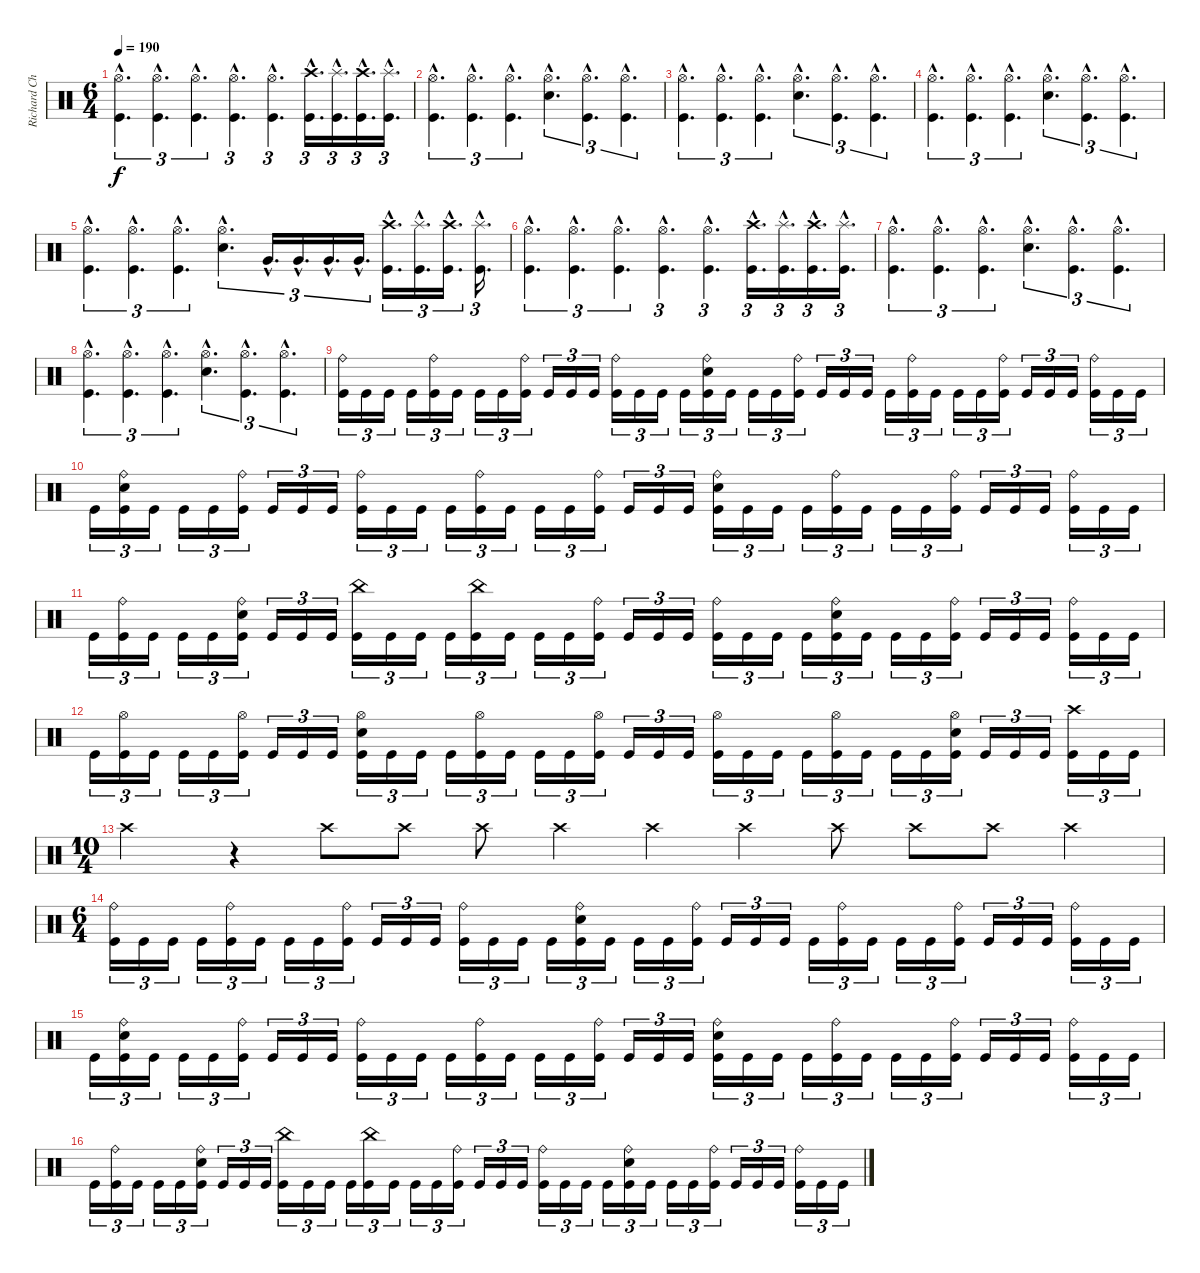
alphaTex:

\track ("Richard Christy" "Richard Ch") {instrument percussion}
\staff {score}
\articulation defaults
\ts (6 4)
\tempo 190
\clef neutral
\ks c
("Hi-Hat (open)"{hac} "Kick (hit)"{hac}).4{d tu (3 2) dy f} ("Hi-Hat (open)"{hac} "Kick (hit)"{hac}).4{d tu (3 2)} ("Hi-Hat (open)"{hac} "Kick (hit)"{hac}).4{d tu (3 2)} ("Hi-Hat (open)"{hac} "Kick (hit)"{hac}).4{d tu (3 2)} ("Hi-Hat (open)"{hac} "Kick (hit)"{hac}).4{d tu (3 2)} ("Crash high (hit)"{hac} "Kick (hit)"{hac}).16{d tu (3 2)} ("Splash (hit)"{hac} "Kick (hit)"{hac}).16{d tu (3 2)} ("Crash high (hit)"{hac} "Kick (hit)"{hac}).16{d tu (3 2)} ("Splash (hit)"{hac} "Kick (hit)"{hac}).16{d tu (3 2)} |
("Hi-Hat (open)"{hac} "Kick (hit)"{hac}).4{d tu (3 2)} ("Hi-Hat (open)"{hac} "Kick (hit)"{hac}).4{d tu (3 2)} ("Hi-Hat (open)"{hac} "Kick (hit)"{hac}).4{d tu (3 2)} ("Hi-Hat (open)"{hac} "Snare (hit) 2"{hac}).4{d tu (3 2)} ("Hi-Hat (open)"{hac} "Kick (hit)"{hac}).4{d tu (3 2)} ("Hi-Hat (open)"{hac} "Kick (hit)"{hac}).4{d tu (3 2)} |
("Hi-Hat (open)"{hac} "Kick (hit)"{hac}).4{d tu (3 2)} ("Hi-Hat (open)"{hac} "Kick (hit)"{hac}).4{d tu (3 2)} ("Hi-Hat (open)"{hac} "Kick (hit)"{hac}).4{d tu (3 2)} ("Hi-Hat (open)"{hac} "Snare (hit) 2"{hac}).4{d tu (3 2)} ("Hi-Hat (open)"{hac} "Kick (hit)"{hac}).4{d tu (3 2)} ("Hi-Hat (open)"{hac} "Kick (hit)"{hac}).4{d tu (3 2)} |
("Hi-Hat (open)"{hac} "Kick (hit)"{hac}).4{d tu (3 2)} ("Hi-Hat (open)"{hac} "Kick (hit)"{hac}).4{d tu (3 2)} ("Hi-Hat (open)"{hac} "Kick (hit)"{hac}).4{d tu (3 2)} ("Hi-Hat (open)"{hac} "Snare (hit) 2"{hac}).4{d tu (3 2)} ("Hi-Hat (open)"{hac} "Kick (hit)"{hac}).4{d tu (3 2)} ("Hi-Hat (open)"{hac} "Kick (hit)"{hac}).4{d tu (3 2)} |
("Hi-Hat (open)"{hac} "Kick (hit)"{hac}).4{d tu (3 2)} ("Hi-Hat (open)"{hac} "Kick (hit)"{hac}).4{d tu (3 2)} ("Hi-Hat (open)"{hac} "Kick (hit)"{hac}).4{d tu (3 2)} ("Hi-Hat (open)"{hac} "Snare (hit) 2"{hac}).4{d tu (3 2)} "Very Low Tom (hit)"{hac}.16{d tu (3 2)} "Very Low Tom (hit)"{hac}.16{d tu (3 2)} "Very Low Tom (hit)"{hac}.16{d tu (3 2)} "Very Low Tom (hit)"{hac}.16{d tu (3 2)} ("Crash high (hit)"{hac} "Kick (hit)"{hac}).16{d tu (3 2)} ("Splash (hit)"{hac} "Kick (hit)"{hac}).16{d tu (3 2)} ("Crash high (hit)"{hac} "Kick (hit)"{hac}).16{d tu (3 2)} ("Splash (hit)"{hac} "Kick (hit)"{hac}).16{d tu (3 2)} |
("Hi-Hat (open)"{hac} "Kick (hit)"{hac}).4{d tu (3 2)} ("Hi-Hat (open)"{hac} "Kick (hit)"{hac}).4{d tu (3 2)} ("Hi-Hat (open)"{hac} "Kick (hit)"{hac}).4{d tu (3 2)} ("Hi-Hat (open)"{hac} "Kick (hit)"{hac}).4{d tu (3 2)} ("Hi-Hat (open)"{hac} "Kick (hit)"{hac}).4{d tu (3 2)} ("Crash high (hit)"{hac} "Kick (hit)"{hac}).16{d tu (3 2)} ("Splash (hit)"{hac} "Kick (hit)"{hac}).16{d tu (3 2)} ("Crash high (hit)"{hac} "Kick (hit)"{hac}).16{d tu (3 2)} ("Splash (hit)"{hac} "Kick (hit)"{hac}).16{d tu (3 2)} |
("Hi-Hat (open)"{hac} "Kick (hit)"{hac}).4{d tu (3 2)} ("Hi-Hat (open)"{hac} "Kick (hit)"{hac}).4{d tu (3 2)} ("Hi-Hat (open)"{hac} "Kick (hit)"{hac}).4{d tu (3 2)} ("Hi-Hat (open)"{hac} "Snare (hit) 2"{hac}).4{d tu (3 2)} ("Hi-Hat (open)"{hac} "Kick (hit)"{hac}).4{d tu (3 2)} ("Hi-Hat (open)"{hac} "Kick (hit)"{hac}).4{d tu (3 2)} |
("Hi-Hat (open)"{hac} "Kick (hit)"{hac}).4{d tu (3 2)} ("Hi-Hat (open)"{hac} "Kick (hit)"{hac}).4{d tu (3 2)} ("Hi-Hat (open)"{hac} "Kick (hit)"{hac}).4{d tu (3 2)} ("Hi-Hat (open)"{hac} "Snare (hit) 2"{hac}).4{d tu (3 2)} ("Hi-Hat (open)"{hac} "Kick (hit)"{hac}).4{d tu (3 2)} ("Hi-Hat (open)"{hac} "Kick (hit)"{hac}).4{d tu (3 2)} |
("Ride (bell)" "Kick (hit)").16{tu (3 2)} "Kick (hit)".16{tu (3 2)} "Kick (hit)".16{tu (3 2)} "Kick (hit)".16{tu (3 2)} ("Ride (bell)" "Kick (hit)").16{tu (3 2)} "Kick (hit)".16{tu (3 2)} "Kick (hit)".16{tu (3 2)} "Kick (hit)".16{tu (3 2)} ("Ride (bell)" "Kick (hit)").16{tu (3 2)} "Kick (hit)".16{tu (3 2)} "Kick (hit)".16{tu (3 2)} "Kick (hit)".16{tu (3 2)} ("Ride (bell)" "Kick (hit)").16{tu (3 2)} "Kick (hit)".16{tu (3 2)} "Kick (hit)".16{tu (3 2)} "Kick (hit)".16{tu (3 2)} ("Ride (bell)" "Snare (hit) 2" "Kick (hit)").16{tu (3 2)} "Kick (hit)".16{tu (3 2)} "Kick (hit)".16{tu (3 2)} "Kick (hit)".16{tu (3 2)} ("Ride (bell)" "Kick (hit)").16{tu (3 2)} "Kick (hit)".16{tu (3 2)} "Kick (hit)".16{tu (3 2)} "Kick (hit)".16{tu (3 2)} "Kick (hit)".16{tu (3 2)} ("Ride (bell)" "Kick (hit)").16{tu (3 2)} "Kick (hit)".16{tu (3 2)} "Kick (hit)".16{tu (3 2)} "Kick (hit)".16{tu (3 2)} ("Ride (bell)" "Kick (hit)").16{tu (3 2)} "Kick (hit)".16{tu (3 2)} "Kick (hit)".16{tu (3 2)} "Kick (hit)".16{tu (3 2)} ("Ride (bell)" "Kick (hit)").16{tu (3 2)} "Kick (hit)".16{tu (3 2)} "Kick (hit)".16{tu (3 2)} |
"Kick (hit)".16{tu (3 2)} ("Ride (bell)" "Snare (hit) 2" "Kick (hit)").16{tu (3 2)} "Kick (hit)".16{tu (3 2)} "Kick (hit)".16{tu (3 2)} "Kick (hit)".16{tu (3 2)} ("Ride (bell)" "Kick (hit)").16{tu (3 2)} "Kick (hit)".16{tu (3 2)} "Kick (hit)".16{tu (3 2)} "Kick (hit)".16{tu (3 2)} ("Ride (bell)" "Kick (hit)").16{tu (3 2)} "Kick (hit)".16{tu (3 2)} "Kick (hit)".16{tu (3 2)} "Kick (hit)".16{tu (3 2)} ("Ride (bell)" "Kick (hit)").16{tu (3 2)} "Kick (hit)".16{tu (3 2)} "Kick (hit)".16{tu (3 2)} "Kick (hit)".16{tu (3 2)} ("Ride (bell)" "Kick (hit)").16{tu (3 2)} "Kick (hit)".16{tu (3 2)} "Kick (hit)".16{tu (3 2)} "Kick (hit)".16{tu (3 2)} ("Ride (bell)" "Snare (hit) 2" "Kick (hit)").16{tu (3 2)} "Kick (hit)".16{tu (3 2)} "Kick (hit)".16{tu (3 2)} "Kick (hit)".16{tu (3 2)} ("Ride (bell)" "Kick (hit)").16{tu (3 2)} "Kick (hit)".16{tu (3 2)} "Kick (hit)".16{tu (3 2)} "Kick (hit)".16{tu (3 2)} ("Ride (bell)" "Kick (hit)").16{tu (3 2)} "Kick (hit)".16{tu (3 2)} "Kick (hit)".16{tu (3 2)} "Kick (hit)".16{tu (3 2)} ("Ride (bell)" "Kick (hit)").16{tu (3 2)} "Kick (hit)".16{tu (3 2)} "Kick (hit)".16{tu (3 2)} |
"Kick (hit)".16{tu (3 2)} ("Ride (bell)" "Kick (hit)").16{tu (3 2)} "Kick (hit)".16{tu (3 2)} "Kick (hit)".16{tu (3 2)} "Kick (hit)".16{tu (3 2)} ("Ride (bell)" "Snare (hit) 2" "Kick (hit)").16{tu (3 2)} "Kick (hit)".16{tu (3 2)} "Kick (hit)".16{tu (3 2)} "Kick (hit)".16{tu (3 2)} ("China (hit)" "Kick (hit)").16{tu (3 2)} "Kick (hit)".16{tu (3 2)} "Kick (hit)".16{tu (3 2)} "Kick (hit)".16{tu (3 2)} ("China (hit)" "Kick (hit)").16{tu (3 2)} "Kick (hit)".16{tu (3 2)} "Kick (hit)".16{tu (3 2)} "Kick (hit)".16{tu (3 2)} ("Ride (bell)" "Kick (hit)").16{tu (3 2)} "Kick (hit)".16{tu (3 2)} "Kick (hit)".16{tu (3 2)} "Kick (hit)".16{tu (3 2)} ("Ride (bell)" "Kick (hit)").16{tu (3 2)} "Kick (hit)".16{tu (3 2)} "Kick (hit)".16{tu (3 2)} "Kick (hit)".16{tu (3 2)} ("Ride (bell)" "Snare (hit) 2" "Kick (hit)").16{tu (3 2)} "Kick (hit)".16{tu (3 2)} "Kick (hit)".16{tu (3 2)} "Kick (hit)".16{tu (3 2)} ("Ride (bell)" "Kick (hit)").16{tu (3 2)} "Kick (hit)".16{tu (3 2)} "Kick (hit)".16{tu (3 2)} "Kick (hit)".16{tu (3 2)} ("Ride (bell)" "Kick (hit)").16{tu (3 2)} "Kick (hit)".16{tu (3 2)} "Kick (hit)".16{tu (3 2)} |
"Kick (hit)".16{tu (3 2)} ("Hi-Hat (open)" "Kick (hit)").16{tu (3 2)} "Kick (hit)".16{tu (3 2)} "Kick (hit)".16{tu (3 2)} "Kick (hit)".16{tu (3 2)} ("Hi-Hat (open)" "Kick (hit)").16{tu (3 2)} "Kick (hit)".16{tu (3 2)} "Kick (hit)".16{tu (3 2)} "Kick (hit)".16{tu (3 2)} ("Hi-Hat (open)" "Snare (hit) 2" "Kick (hit)").16{tu (3 2)} "Kick (hit)".16{tu (3 2)} "Kick (hit)".16{tu (3 2)} "Kick (hit)".16{tu (3 2)} ("Hi-Hat (open)" "Kick (hit)").16{tu (3 2)} "Kick (hit)".16{tu (3 2)} "Kick (hit)".16{tu (3 2)} "Kick (hit)".16{tu (3 2)} ("Hi-Hat (open)" "Kick (hit)").16{tu (3 2)} "Kick (hit)".16{tu (3 2)} "Kick (hit)".16{tu (3 2)} "Kick (hit)".16{tu (3 2)} ("Hi-Hat (open)" "Kick (hit)").16{tu (3 2)} "Kick (hit)".16{tu (3 2)} "Kick (hit)".16{tu (3 2)} "Kick (hit)".16{tu (3 2)} ("Hi-Hat (open)" "Kick (hit)").16{tu (3 2)} "Kick (hit)".16{tu (3 2)} "Kick (hit)".16{tu (3 2)} "Kick (hit)".16{tu (3 2)} ("Hi-Hat (open)" "Snare (hit) 2" "Kick (hit)").16{tu (3 2)} "Kick (hit)".16{tu (3 2)} "Kick (hit)".16{tu (3 2)} "Kick (hit)".16{tu (3 2)} ("Crash high (hit)" "Kick (hit)").16{tu (3 2)} "Kick (hit)".16{tu (3 2)} "Kick (hit)".16{tu (3 2)} |
\ts (10 4)
"Crash high (hit)".2 r.4 "Crash high (hit)".8 "Crash high (hit)".8 "Crash high (hit)".8 "Crash high (hit)".4 "Crash high (hit)".4{volume 0} "Crash high (hit)".4{volume 16} "Crash high (hit)".8 "Crash high (hit)".8 "Crash high (hit)".8 "Crash high (hit)".4{volume 0} |
\ts (6 4)
("Ride (bell)" "Kick (hit)").16{tu (3 2) volume 16} "Kick (hit)".16{tu (3 2)} "Kick (hit)".16{tu (3 2)} "Kick (hit)".16{tu (3 2)} ("Ride (bell)" "Kick (hit)").16{tu (3 2)} "Kick (hit)".16{tu (3 2)} "Kick (hit)".16{tu (3 2)} "Kick (hit)".16{tu (3 2)} ("Ride (bell)" "Kick (hit)").16{tu (3 2)} "Kick (hit)".16{tu (3 2)} "Kick (hit)".16{tu (3 2)} "Kick (hit)".16{tu (3 2)} ("Ride (bell)" "Kick (hit)").16{tu (3 2)} "Kick (hit)".16{tu (3 2)} "Kick (hit)".16{tu (3 2)} "Kick (hit)".16{tu (3 2)} ("Ride (bell)" "Snare (hit) 2" "Kick (hit)").16{tu (3 2)} "Kick (hit)".16{tu (3 2)} "Kick (hit)".16{tu (3 2)} "Kick (hit)".16{tu (3 2)} ("Ride (bell)" "Kick (hit)").16{tu (3 2)} "Kick (hit)".16{tu (3 2)} "Kick (hit)".16{tu (3 2)} "Kick (hit)".16{tu (3 2)} "Kick (hit)".16{tu (3 2)} ("Ride (bell)" "Kick (hit)").16{tu (3 2)} "Kick (hit)".16{tu (3 2)} "Kick (hit)".16{tu (3 2)} "Kick (hit)".16{tu (3 2)} ("Ride (bell)" "Kick (hit)").16{tu (3 2)} "Kick (hit)".16{tu (3 2)} "Kick (hit)".16{tu (3 2)} "Kick (hit)".16{tu (3 2)} ("Ride (bell)" "Kick (hit)").16{tu (3 2)} "Kick (hit)".16{tu (3 2)} "Kick (hit)".16{tu (3 2)} |
"Kick (hit)".16{tu (3 2)} ("Ride (bell)" "Snare (hit) 2" "Kick (hit)").16{tu (3 2)} "Kick (hit)".16{tu (3 2)} "Kick (hit)".16{tu (3 2)} "Kick (hit)".16{tu (3 2)} ("Ride (bell)" "Kick (hit)").16{tu (3 2)} "Kick (hit)".16{tu (3 2)} "Kick (hit)".16{tu (3 2)} "Kick (hit)".16{tu (3 2)} ("Ride (bell)" "Kick (hit)").16{tu (3 2)} "Kick (hit)".16{tu (3 2)} "Kick (hit)".16{tu (3 2)} "Kick (hit)".16{tu (3 2)} ("Ride (bell)" "Kick (hit)").16{tu (3 2)} "Kick (hit)".16{tu (3 2)} "Kick (hit)".16{tu (3 2)} "Kick (hit)".16{tu (3 2)} ("Ride (bell)" "Kick (hit)").16{tu (3 2)} "Kick (hit)".16{tu (3 2)} "Kick (hit)".16{tu (3 2)} "Kick (hit)".16{tu (3 2)} ("Ride (bell)" "Snare (hit) 2" "Kick (hit)").16{tu (3 2)} "Kick (hit)".16{tu (3 2)} "Kick (hit)".16{tu (3 2)} "Kick (hit)".16{tu (3 2)} ("Ride (bell)" "Kick (hit)").16{tu (3 2)} "Kick (hit)".16{tu (3 2)} "Kick (hit)".16{tu (3 2)} "Kick (hit)".16{tu (3 2)} ("Ride (bell)" "Kick (hit)").16{tu (3 2)} "Kick (hit)".16{tu (3 2)} "Kick (hit)".16{tu (3 2)} "Kick (hit)".16{tu (3 2)} ("Ride (bell)" "Kick (hit)").16{tu (3 2)} "Kick (hit)".16{tu (3 2)} "Kick (hit)".16{tu (3 2)} |
"Kick (hit)".16{tu (3 2)} ("Ride (bell)" "Kick (hit)").16{tu (3 2)} "Kick (hit)".16{tu (3 2)} "Kick (hit)".16{tu (3 2)} "Kick (hit)".16{tu (3 2)} ("Ride (bell)" "Snare (hit) 2" "Kick (hit)").16{tu (3 2)} "Kick (hit)".16{tu (3 2)} "Kick (hit)".16{tu (3 2)} "Kick (hit)".16{tu (3 2)} ("China (hit)" "Kick (hit)").16{tu (3 2)} "Kick (hit)".16{tu (3 2)} "Kick (hit)".16{tu (3 2)} "Kick (hit)".16{tu (3 2)} ("China (hit)" "Kick (hit)").16{tu (3 2)} "Kick (hit)".16{tu (3 2)} "Kick (hit)".16{tu (3 2)} "Kick (hit)".16{tu (3 2)} ("Ride (bell)" "Kick (hit)").16{tu (3 2)} "Kick (hit)".16{tu (3 2)} "Kick (hit)".16{tu (3 2)} "Kick (hit)".16{tu (3 2)} ("Ride (bell)" "Kick (hit)").16{tu (3 2)} "Kick (hit)".16{tu (3 2)} "Kick (hit)".16{tu (3 2)} "Kick (hit)".16{tu (3 2)} ("Ride (bell)" "Snare (hit) 2" "Kick (hit)").16{tu (3 2)} "Kick (hit)".16{tu (3 2)} "Kick (hit)".16{tu (3 2)} "Kick (hit)".16{tu (3 2)} ("Ride (bell)" "Kick (hit)").16{tu (3 2)} "Kick (hit)".16{tu (3 2)} "Kick (hit)".16{tu (3 2)} "Kick (hit)".16{tu (3 2)} ("Ride (bell)" "Kick (hit)").16{tu (3 2)} "Kick (hit)".16{tu (3 2)} "Kick (hit)".16{tu (3 2)}
